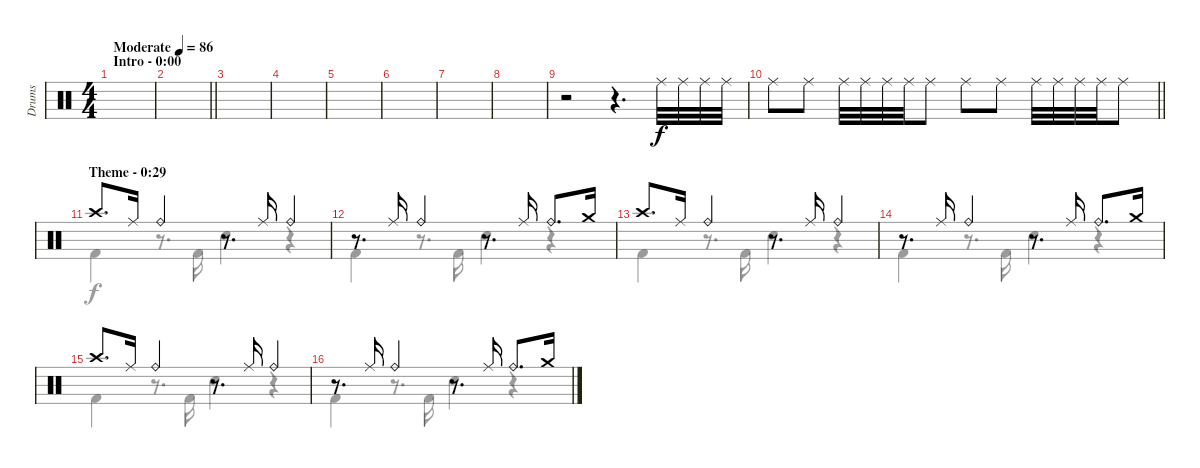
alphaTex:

\track ("Drums" "Drums") {instrument percussion}
\staff {score}
\articulation defaults
\voice
\ts (4 4)
\section ("" "Intro - 0:00")
\tempo (86 "Moderate")
\clef neutral
\ks c
|
\barLineRight lightlight
|
|
|
|
|
|
|
r.2 r.4{d} "Ride (middle)".32 "Ride (middle)".32 "Ride (middle)".32 "Ride (middle)".32 |
\barLineRight lightlight "Ride (middle)".8 "Ride (middle)".8 "Ride (middle)".32 "Ride (middle)".32 "Ride (middle)".32 "Ride (middle)".32 "Ride (middle)".8 "Ride (middle)".8 "Ride (middle)".8 "Ride (middle)".32 "Ride (middle)".32 "Ride (middle)".32 "Ride (middle)".32 "Ride (middle)".8
|
\section ("" "Theme - 0:29")
"Crash high (hit)".8{d} "Ride (middle)".16 "Ride (bell)".4 r.8{d} "Ride (middle)".16 "Ride (bell)".4 |
r.8{d} "Ride (middle)".16 "Ride (bell)".4 r.8{d} "Ride (middle)".16 "Ride (bell)".8{d} "Crash medium (hit)".16 |
"Crash high (hit)".8{d} "Ride (middle)".16 "Ride (bell)".4 r.8{d} "Ride (middle)".16 "Ride (bell)".4 |
r.8{d} "Ride (middle)".16 "Ride (bell)".4 r.8{d} "Ride (middle)".16 "Ride (bell)".8{d} "Crash medium (hit)".16 |
"Crash high (hit)".8{d} "Ride (middle)".16 "Ride (bell)".4 r.8{d} "Ride (middle)".16 "Ride (bell)".4 |
r.8{d} "Ride (middle)".16 "Ride (bell)".4 r.8{d} "Ride (middle)".16 "Ride (bell)".8{d} "Crash medium (hit)".16
\voice
\clef neutral
\ottava regular
\simile none
\ks c
|
\barLineRight lightlight
|
|
|
|
|
|
|
|
\barLineRight lightlight
|
"Kick (hit) 2".4 r.8{d} "Kick (hit) 2".16 "Electric Snare (hit)".4 r.4 |
"Kick (hit) 2".4 r.8{d} "Kick (hit) 2".16 "Electric Snare (hit)".4 r.4 |
"Kick (hit) 2".4 r.8{d} "Kick (hit) 2".16 "Electric Snare (hit)".4 r.4 |
"Kick (hit) 2".4 r.8{d} "Kick (hit) 2".16 "Electric Snare (hit)".4 r.4 |
"Kick (hit) 2".4 r.8{d} "Kick (hit) 2".16 "Electric Snare (hit)".4 r.4 |
"Kick (hit) 2".4 r.8{d} "Kick (hit) 2".16 "Electric Snare (hit)".4 r.4
